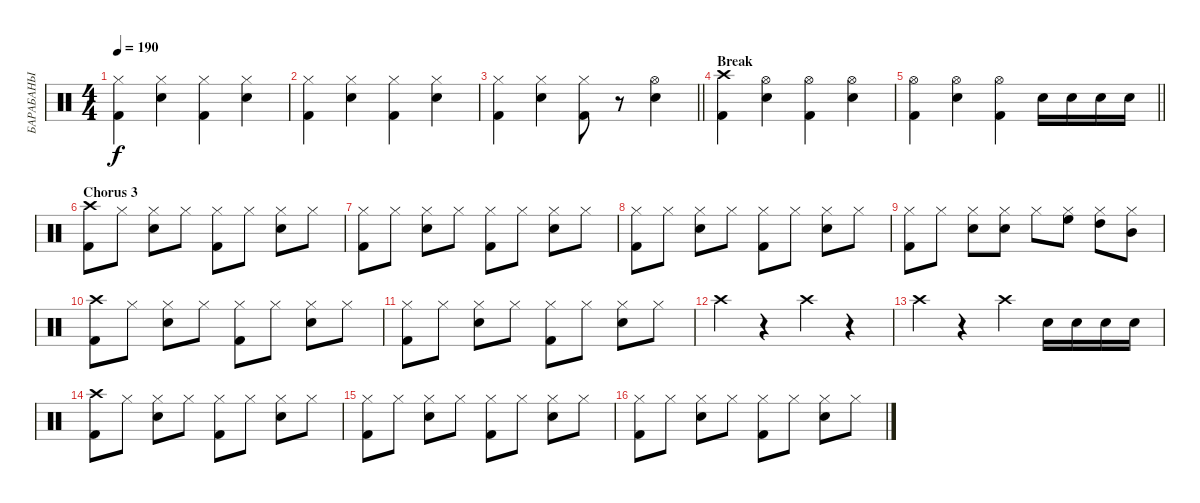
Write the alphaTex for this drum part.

\track ("БАРАБАНЫ" "БАРАБАНЫ") {instrument percussion}
\staff {score}
\articulation defaults
\ts (4 4)
\tempo 190
\clef neutral
\ks c
("Hi-Hat (closed)" "Kick (hit) 2").4{dy f} ("Hi-Hat (closed)" "Snare (hit) 2").4 ("Hi-Hat (closed)" "Kick (hit) 2").4 ("Hi-Hat (closed)" "Snare (hit) 2").4 |
("Hi-Hat (closed)" "Kick (hit) 2").4 ("Hi-Hat (closed)" "Snare (hit) 2").4 ("Hi-Hat (closed)" "Kick (hit) 2").4 ("Hi-Hat (closed)" "Snare (hit) 2").4 |
\barLineRight lightlight
("Hi-Hat (closed)" "Kick (hit) 2").4 ("Hi-Hat (closed)" "Snare (hit) 2").4 ("Hi-Hat (closed)" "Kick (hit) 2").8 r.8 ("Hi-Hat (open)" "Snare (hit) 2").4 |
\section ("" "Break")
("Crash high (hit)" "Kick (hit) 2").4 ("Hi-Hat (open)" "Snare (hit) 2").4 ("Hi-Hat (open)" "Kick (hit) 2").4 ("Hi-Hat (open)" "Snare (hit) 2").4 |
\barLineRight lightlight
("Hi-Hat (open)" "Kick (hit) 2").4 ("Hi-Hat (open)" "Snare (hit) 2").4 ("Hi-Hat (open)" "Kick (hit) 2").4 "Snare (hit) 2".16 "Snare (hit) 2".16 "Snare (hit) 2".16 "Snare (hit) 2".16 |
\section ("" "Chorus 3")
("Crash high (hit)" "Kick (hit) 2").8 "Hi-Hat (closed)".8 ("Hi-Hat (closed)" "Snare (hit) 2").8 "Hi-Hat (closed)".8 ("Hi-Hat (closed)" "Kick (hit) 2").8 "Hi-Hat (closed)".8 ("Hi-Hat (closed)" "Snare (hit) 2").8 "Hi-Hat (closed)".8 |
("Hi-Hat (closed)" "Kick (hit) 2").8 "Hi-Hat (closed)".8 ("Hi-Hat (closed)" "Snare (hit) 2").8 "Hi-Hat (closed)".8 ("Hi-Hat (closed)" "Kick (hit) 2").8 "Hi-Hat (closed)".8 ("Hi-Hat (closed)" "Snare (hit) 2").8 "Hi-Hat (closed)".8 |
("Hi-Hat (closed)" "Kick (hit) 2").8 "Hi-Hat (closed)".8 ("Hi-Hat (closed)" "Snare (hit) 2").8 "Hi-Hat (closed)".8 ("Hi-Hat (closed)" "Kick (hit) 2").8 "Hi-Hat (closed)".8 ("Hi-Hat (closed)" "Snare (hit) 2").8 "Hi-Hat (closed)".8 |
("Hi-Hat (closed)" "Kick (hit) 2").8 "Hi-Hat (closed)".8 ("Hi-Hat (closed)" "Snare (hit) 2").8 ("Hi-Hat (closed)" "Snare (hit) 2").8 "Hi-Hat (closed)".8 ("Hi-Hat (closed)" "High Floor Tom (hit)").8 ("Hi-Hat (closed)" "High Tom (hit)").8 ("Hi-Hat (closed)" "Mid Tom (hit)").8 |
("Crash high (hit)" "Kick (hit) 2").8 "Hi-Hat (closed)".8 ("Hi-Hat (closed)" "Snare (hit) 2").8 "Hi-Hat (closed)".8 ("Hi-Hat (closed)" "Kick (hit) 2").8 "Hi-Hat (closed)".8 ("Hi-Hat (closed)" "Snare (hit) 2").8 "Hi-Hat (closed)".8 |
("Hi-Hat (closed)" "Kick (hit) 2").8 "Hi-Hat (closed)".8 ("Hi-Hat (closed)" "Snare (hit) 2").8 "Hi-Hat (closed)".8 ("Hi-Hat (closed)" "Kick (hit) 2").8 "Hi-Hat (closed)".8 ("Hi-Hat (closed)" "Snare (hit) 2").8 "Hi-Hat (closed)".8 |
"Crash high (hit)".4 r.4 "Crash high (hit)".4 r.4 |
"Crash high (hit)".4 r.4 "Crash high (hit)".4 "Snare (hit) 2".16 "Snare (hit) 2".16 "Snare (hit) 2".16 "Snare (hit) 2".16 |
("Crash high (hit)" "Kick (hit) 2").8 "Hi-Hat (closed)".8 ("Hi-Hat (closed)" "Snare (hit) 2").8 "Hi-Hat (closed)".8 ("Hi-Hat (closed)" "Kick (hit) 2").8 "Hi-Hat (closed)".8 ("Hi-Hat (closed)" "Snare (hit) 2").8 "Hi-Hat (closed)".8 |
("Hi-Hat (closed)" "Kick (hit) 2").8 "Hi-Hat (closed)".8 ("Hi-Hat (closed)" "Snare (hit) 2").8 "Hi-Hat (closed)".8 ("Hi-Hat (closed)" "Kick (hit) 2").8 "Hi-Hat (closed)".8 ("Hi-Hat (closed)" "Snare (hit) 2").8 "Hi-Hat (closed)".8 |
("Hi-Hat (closed)" "Kick (hit) 2").8 "Hi-Hat (closed)".8 ("Hi-Hat (closed)" "Snare (hit) 2").8 "Hi-Hat (closed)".8 ("Hi-Hat (closed)" "Kick (hit) 2").8 "Hi-Hat (closed)".8 ("Hi-Hat (closed)" "Snare (hit) 2").8 "Hi-Hat (closed)".8
